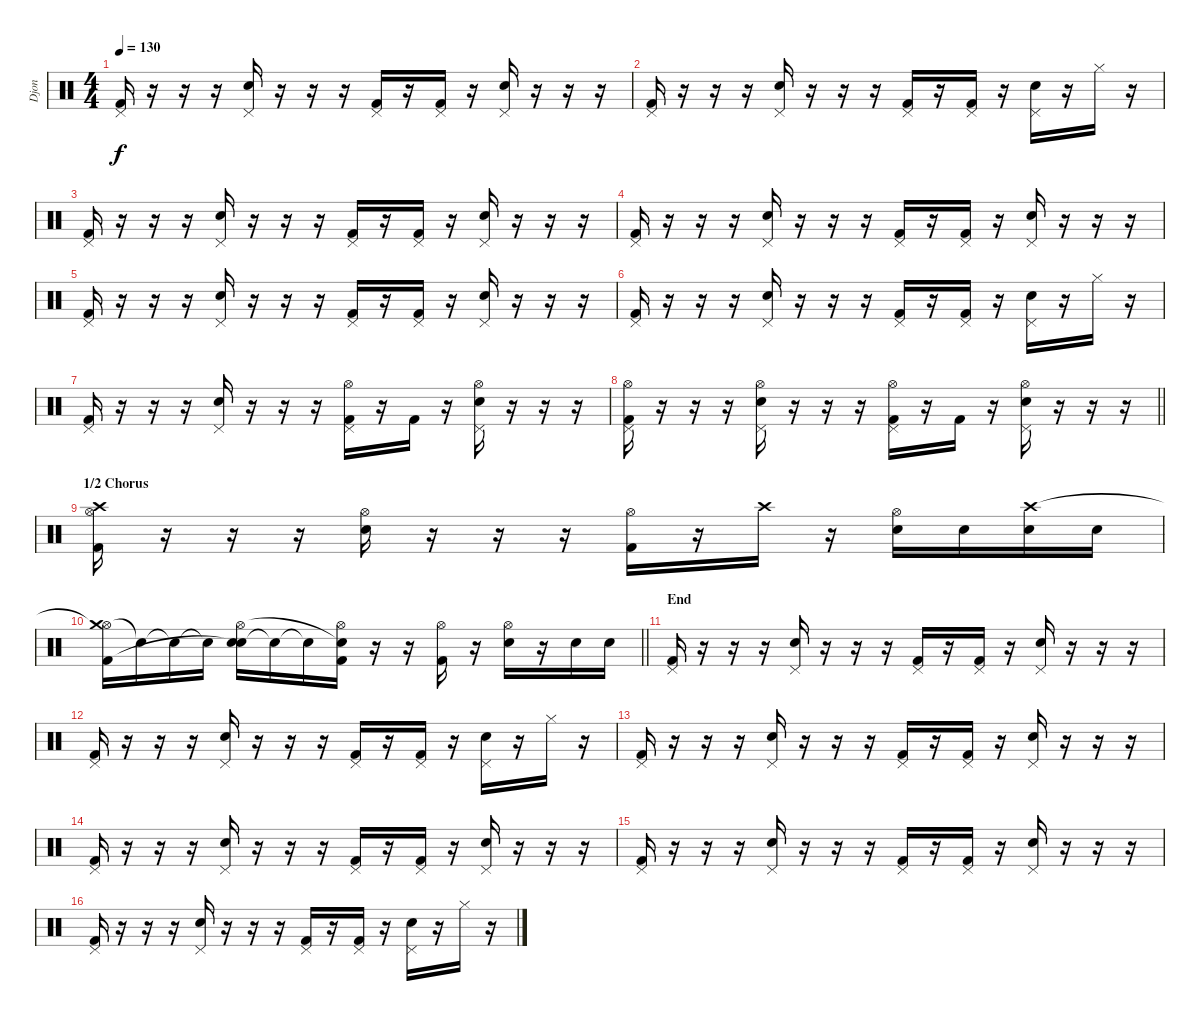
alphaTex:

\track ("Djon" "Djon") {instrument percussion}
\staff {score}
\articulation defaults
\ts (4 4)
\tempo 130
\clef neutral
\ks c
("Pedal Hi-Hat (hit)" "Kick (hit) 2").16{dy f} r.16 r.16 r.16 ("Pedal Hi-Hat (hit)" "Snare (hit) 2").16 r.16 r.16 r.16 ("Pedal Hi-Hat (hit)" "Kick (hit) 2").16 r.16 ("Pedal Hi-Hat (hit)" "Kick (hit) 2").16 r.16 ("Pedal Hi-Hat (hit)" "Snare (hit) 2").16 r.16 r.16 r.16 |
("Pedal Hi-Hat (hit)" "Kick (hit) 2").16 r.16 r.16 r.16 ("Pedal Hi-Hat (hit)" "Snare (hit) 2").16 r.16 r.16 r.16 ("Pedal Hi-Hat (hit)" "Kick (hit) 2").16 r.16 ("Pedal Hi-Hat (hit)" "Kick (hit) 2").16 r.16 ("Pedal Hi-Hat (hit)" "Snare (hit) 2").16 r.16 "Hi-Hat (closed)".16 r.16 |
("Pedal Hi-Hat (hit)" "Kick (hit) 2").16 r.16 r.16 r.16 ("Pedal Hi-Hat (hit)" "Snare (hit) 2").16 r.16 r.16 r.16 ("Pedal Hi-Hat (hit)" "Kick (hit) 2").16 r.16 ("Pedal Hi-Hat (hit)" "Kick (hit) 2").16 r.16 ("Pedal Hi-Hat (hit)" "Snare (hit) 2").16 r.16 r.16 r.16 |
("Pedal Hi-Hat (hit)" "Kick (hit) 2").16 r.16 r.16 r.16 ("Pedal Hi-Hat (hit)" "Snare (hit) 2").16 r.16 r.16 r.16 ("Pedal Hi-Hat (hit)" "Kick (hit) 2").16 r.16 ("Pedal Hi-Hat (hit)" "Kick (hit) 2").16 r.16 ("Pedal Hi-Hat (hit)" "Snare (hit) 2").16 r.16 r.16 r.16 |
("Pedal Hi-Hat (hit)" "Kick (hit) 2").16 r.16 r.16 r.16 ("Pedal Hi-Hat (hit)" "Snare (hit) 2").16 r.16 r.16 r.16 ("Pedal Hi-Hat (hit)" "Kick (hit) 2").16 r.16 ("Pedal Hi-Hat (hit)" "Kick (hit) 2").16 r.16 ("Pedal Hi-Hat (hit)" "Snare (hit) 2").16 r.16 r.16 r.16 |
("Pedal Hi-Hat (hit)" "Kick (hit) 2").16 r.16 r.16 r.16 ("Pedal Hi-Hat (hit)" "Snare (hit) 2").16 r.16 r.16 r.16 ("Pedal Hi-Hat (hit)" "Kick (hit) 2").16 r.16 ("Pedal Hi-Hat (hit)" "Kick (hit) 2").16 r.16 ("Pedal Hi-Hat (hit)" "Snare (hit) 2").16 r.16 "Hi-Hat (closed)".16 r.16 |
("Pedal Hi-Hat (hit)" "Kick (hit) 2").16 r.16 r.16 r.16 ("Pedal Hi-Hat (hit)" "Snare (hit) 2").16 r.16 r.16 r.16 ("Pedal Hi-Hat (hit)" "Hi-Hat (open)" "Kick (hit) 2").16 r.16 "Kick (hit) 2".16 r.16 ("Pedal Hi-Hat (hit)" "Hi-Hat (open)" "Snare (hit) 2").16 r.16 r.16 r.16 |
\barLineRight lightlight
("Pedal Hi-Hat (hit)" "Hi-Hat (open)" "Kick (hit) 2").16 r.16 r.16 r.16 ("Pedal Hi-Hat (hit)" "Hi-Hat (open)" "Snare (hit) 2").16 r.16 r.16 r.16 ("Pedal Hi-Hat (hit)" "Hi-Hat (open)" "Kick (hit) 2").16 r.16 "Kick (hit) 2".16 r.16 ("Pedal Hi-Hat (hit)" "Hi-Hat (open)" "Snare (hit) 2").16 r.16 r.16 r.16 |
\section ("" "1/2 Chorus")
("Hi-Hat (open)" "Crash high (hit)" "Kick (hit) 2").16 r.16 r.16 r.16 ("Hi-Hat (open)" "Snare (hit) 2").16 r.16 r.16 r.16 ("Hi-Hat (open)" "Kick (hit) 2").16 r.16 "Crash high (hit)".16 r.16 ("Hi-Hat (open)" "Snare (hit) 2").16 "Snare (hit) 2".16 ("Snare (hit) 2" "Crash high (hit)").16 "Snare (hit) 2".16 |
\barLineRight lightlight
("Hi-Hat (open)" "Crash medium (hit)"{t} "Kick (hit) 2").16 "Snare (hit)"{t}.16 "Snare (hit)"{t}.16 "Snare (hit)"{t}.16 ("Snare (hit) 2" "Hi-Hat (open)" "Snare (hit)"{t}).16 "Snare (hit)"{t}.16 "Snare (hit)"{t}.16 ("Hi-Hat (open)" "Snare (hit)"{t} "Kick (hit) 2").16 r.16 r.16 ("Hi-Hat (open)" "Kick (hit) 2").16 r.16 ("Snare (hit) 2" "Hi-Hat (open)").16 r.16 "Snare (hit) 2".16 "Snare (hit) 2".16 |
\section ("" "End")
("Pedal Hi-Hat (hit)" "Kick (hit) 2").16 r.16 r.16 r.16 ("Pedal Hi-Hat (hit)" "Snare (hit) 2").16 r.16 r.16 r.16 ("Pedal Hi-Hat (hit)" "Kick (hit) 2").16 r.16 ("Pedal Hi-Hat (hit)" "Kick (hit) 2").16 r.16 ("Pedal Hi-Hat (hit)" "Snare (hit) 2").16 r.16 r.16 r.16 |
("Pedal Hi-Hat (hit)" "Kick (hit) 2").16 r.16 r.16 r.16 ("Pedal Hi-Hat (hit)" "Snare (hit) 2").16 r.16 r.16 r.16 ("Pedal Hi-Hat (hit)" "Kick (hit) 2").16 r.16 ("Pedal Hi-Hat (hit)" "Kick (hit) 2").16 r.16 ("Pedal Hi-Hat (hit)" "Snare (hit) 2").16 r.16 "Hi-Hat (closed)".16 r.16 |
("Pedal Hi-Hat (hit)" "Kick (hit) 2").16 r.16 r.16 r.16 ("Pedal Hi-Hat (hit)" "Snare (hit) 2").16 r.16 r.16 r.16 ("Pedal Hi-Hat (hit)" "Kick (hit) 2").16 r.16 ("Pedal Hi-Hat (hit)" "Kick (hit) 2").16 r.16 ("Pedal Hi-Hat (hit)" "Snare (hit) 2").16 r.16 r.16 r.16 |
("Pedal Hi-Hat (hit)" "Kick (hit) 2").16 r.16 r.16 r.16 ("Pedal Hi-Hat (hit)" "Snare (hit) 2").16 r.16 r.16 r.16 ("Pedal Hi-Hat (hit)" "Kick (hit) 2").16 r.16 ("Pedal Hi-Hat (hit)" "Kick (hit) 2").16 r.16 ("Pedal Hi-Hat (hit)" "Snare (hit) 2").16 r.16 r.16 r.16 |
("Pedal Hi-Hat (hit)" "Kick (hit) 2").16 r.16 r.16 r.16 ("Pedal Hi-Hat (hit)" "Snare (hit) 2").16 r.16 r.16 r.16 ("Pedal Hi-Hat (hit)" "Kick (hit) 2").16 r.16 ("Pedal Hi-Hat (hit)" "Kick (hit) 2").16 r.16 ("Pedal Hi-Hat (hit)" "Snare (hit) 2").16 r.16 r.16 r.16 |
("Pedal Hi-Hat (hit)" "Kick (hit) 2").16 r.16 r.16 r.16 ("Pedal Hi-Hat (hit)" "Snare (hit) 2").16 r.16 r.16 r.16 ("Pedal Hi-Hat (hit)" "Kick (hit) 2").16 r.16 ("Pedal Hi-Hat (hit)" "Kick (hit) 2").16 r.16 ("Pedal Hi-Hat (hit)" "Snare (hit) 2").16 r.16 "Hi-Hat (closed)".16 r.16
